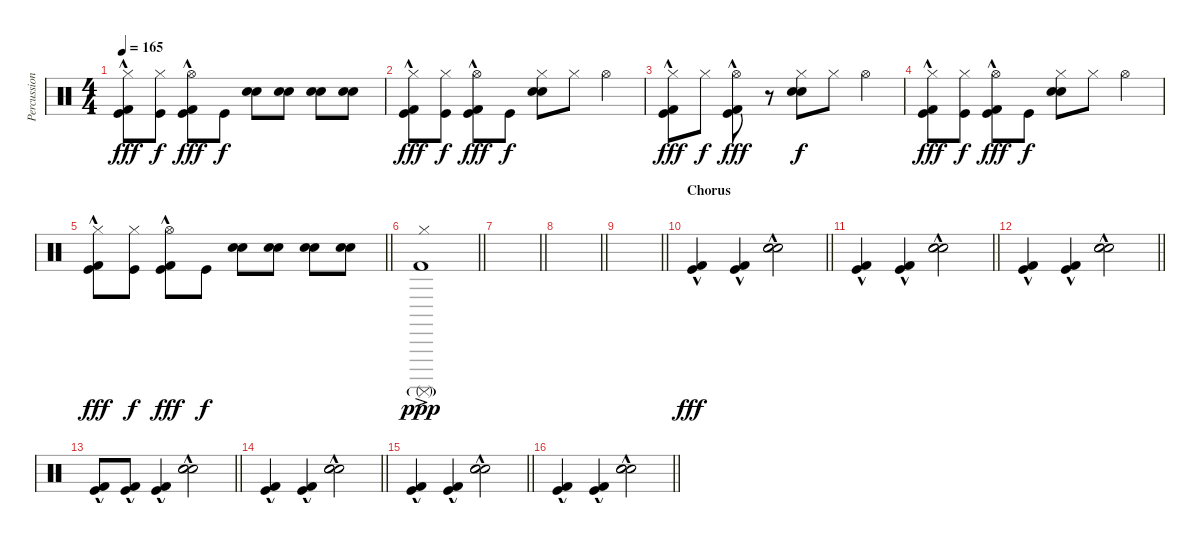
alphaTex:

\track ("Percussion" "Percussion") {instrument percussion}
\staff {score}
\articulation defaults
\ts (4 4)
\tempo 165
\clef neutral
\ks c
("Hi-Hat (closed)" "Kick (hit) 2"{hac} "Kick (hit)").8{dy fff} ("Hi-Hat (closed)" "Kick (hit)").8{dy f} ("Hi-Hat (open)" "Kick (hit) 2"{hac} "Kick (hit)").8{dy fff} "Kick (hit)".8{dy f} ("Snare (hit) 2" "Electric Snare (hit)").8 ("Snare (hit) 2" "Electric Snare (hit)").8 ("Snare (hit) 2" "Electric Snare (hit)").8 ("Snare (hit) 2" "Electric Snare (hit)").8 |
("Hi-Hat (closed)" "Kick (hit) 2"{hac} "Kick (hit)").8{dy fff} ("Hi-Hat (closed)" "Kick (hit)").8{dy f} ("Hi-Hat (open)" "Kick (hit) 2"{hac} "Kick (hit)").8{dy fff} "Kick (hit)".8{dy f} ("Hi-Hat (closed)" "Snare (hit) 2" "Electric Snare (hit)").8 "Hi-Hat (closed)".8 "Hi-Hat (open)".4 |
("Hi-Hat (closed)" "Kick (hit) 2"{hac} "Kick (hit)").8{dy fff} "Hi-Hat (closed)".8{dy f} ("Hi-Hat (open)" "Kick (hit) 2"{hac} "Kick (hit)").8{dy fff} r.8 ("Hi-Hat (closed)" "Snare (hit) 2" "Electric Snare (hit)").8{dy f} "Hi-Hat (closed)".8 "Hi-Hat (open)".4 |
("Hi-Hat (closed)" "Kick (hit) 2"{hac} "Kick (hit)").8{dy fff} ("Hi-Hat (closed)" "Kick (hit)").8{dy f} ("Hi-Hat (open)" "Kick (hit) 2"{hac} "Kick (hit)").8{dy fff} "Kick (hit)".8{dy f} ("Hi-Hat (closed)" "Snare (hit) 2" "Electric Snare (hit)").8 "Hi-Hat (closed)".8 "Hi-Hat (open)".4 |
\barLineRight lightlight
("Hi-Hat (closed)" "Kick (hit) 2"{hac} "Kick (hit)").8{dy fff} ("Hi-Hat (closed)" "Kick (hit)").8{dy f} ("Hi-Hat (open)" "Kick (hit) 2"{hac} "Kick (hit)").8{dy fff} "Kick (hit)".8{dy f} ("Snare (hit) 2" "Electric Snare (hit)").8 ("Snare (hit) 2" "Electric Snare (hit)").8 ("Snare (hit) 2" "Electric Snare (hit)").8 ("Snare (hit) 2" "Electric Snare (hit)").8 |
\barLineRight lightlight
("Hi-Hat (closed)"{ac} "Kick (hit) 2"{ac} "Surdo (mute)"{g}).1{dy ppp} |
\barLineRight lightlight
|
\barLineRight lightlight
|
\barLineRight lightlight
|
\section ("" "Chorus")
\barLineRight lightlight
("Kick (hit) 2"{hac} "Kick (hit)"{hac}).4{dy fff} ("Kick (hit) 2"{hac} "Kick (hit)"{hac}).4 ("Snare (hit) 2"{hac} "Hand Clap (hit)"{hac} "Electric Snare (hit)"{hac}).2 |
\barLineRight lightlight
("Kick (hit) 2"{hac} "Kick (hit)"{hac}).4 ("Kick (hit) 2"{hac} "Kick (hit)"{hac}).4 ("Snare (hit) 2" "Hand Clap (hit)"{hac} "Electric Snare (hit)").2 |
\barLineRight lightlight
("Kick (hit) 2"{hac} "Kick (hit)"{hac}).4 ("Kick (hit) 2"{hac} "Kick (hit)"{hac}).4 ("Snare (hit) 2" "Hand Clap (hit)"{hac} "Electric Snare (hit)").2 |
\barLineRight lightlight
("Kick (hit) 2"{hac} "Kick (hit)"{hac}).8 ("Kick (hit) 2"{hac} "Kick (hit)"{hac}).8 ("Kick (hit) 2"{hac} "Kick (hit)"{hac}).4 ("Snare (hit) 2" "Hand Clap (hit)"{hac} "Electric Snare (hit)").2 |
\barLineRight lightlight
("Kick (hit) 2"{hac} "Kick (hit)"{hac}).4 ("Kick (hit) 2"{hac} "Kick (hit)"{hac}).4 ("Snare (hit) 2"{hac} "Hand Clap (hit)"{hac} "Electric Snare (hit)"{hac}).2 |
\barLineRight lightlight
("Kick (hit) 2"{hac} "Kick (hit)"{hac}).4 ("Kick (hit) 2"{hac} "Kick (hit)"{hac}).4 ("Snare (hit) 2" "Hand Clap (hit)"{hac} "Electric Snare (hit)").2 |
\barLineRight lightlight
("Kick (hit) 2"{hac} "Kick (hit)"{hac}).4 ("Kick (hit) 2"{hac} "Kick (hit)"{hac}).4 ("Snare (hit) 2" "Hand Clap (hit)"{hac} "Electric Snare (hit)").2
